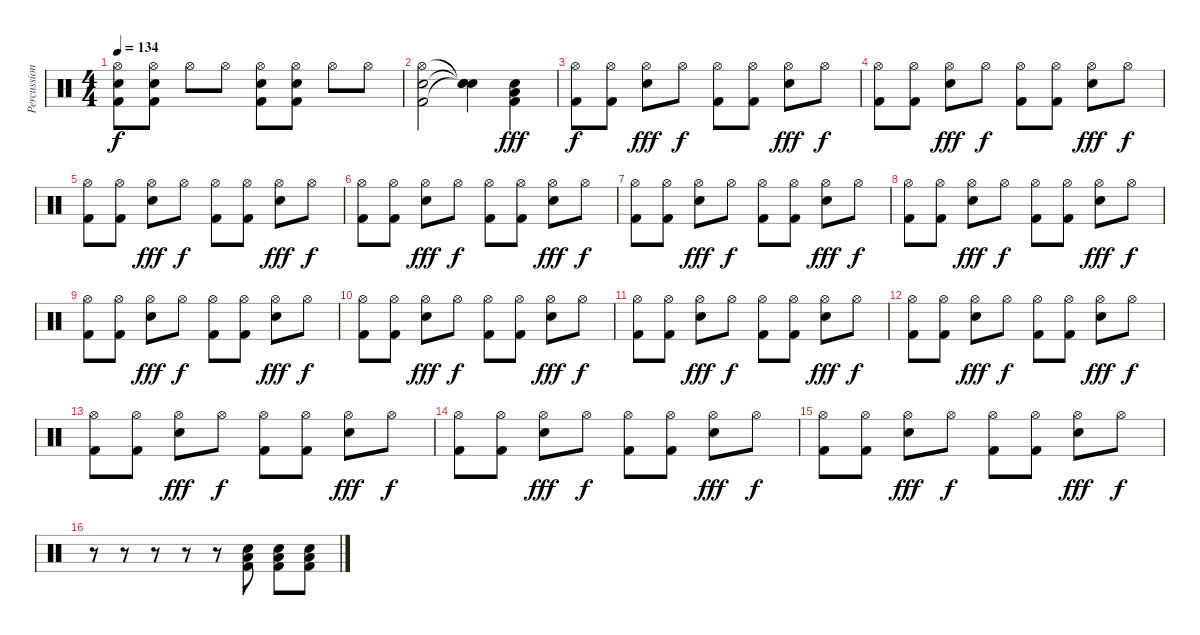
\track ("Percussion" "Percussion") {instrument percussion}
\staff {score}
\articulation defaults
\ts (4 4)
\tempo 134
\clef neutral
\ks c
("Hi-Hat (open)" "Snare (hit) 2" "Kick (hit) 2").8{dy f} ("Hi-Hat (open)" "Snare (hit) 2" "Kick (hit) 2").8 "Hi-Hat (open)".8 "Hi-Hat (open)".8 ("Hi-Hat (open)" "Snare (hit) 2" "Kick (hit) 2").8 ("Hi-Hat (open)" "Snare (hit) 2" "Kick (hit) 2").8 "Hi-Hat (open)".8 "Hi-Hat (open)".8 |
("Hi-Hat (open)" "Snare (hit) 2" "Kick (hit) 2").2 ("Snare (hit)"{t} "Snare (hit)"{t} "Snare (hit)"{t}).4 ("Low Tom (hit)" "Snare (hit) 2" "Kick (hit) 2").4{dy fff} |
("Hi-Hat (open)" "Kick (hit) 2").8{dy f} ("Hi-Hat (open)" "Kick (hit) 2").8 ("Hi-Hat (open)" "Snare (hit) 2").8{dy fff} "Hi-Hat (open)".8{dy f} ("Hi-Hat (open)" "Kick (hit) 2").8 ("Hi-Hat (open)" "Kick (hit) 2").8 ("Hi-Hat (open)" "Snare (hit) 2").8{dy fff} "Hi-Hat (open)".8{dy f} |
("Hi-Hat (open)" "Kick (hit) 2").8 ("Hi-Hat (open)" "Kick (hit) 2").8 ("Hi-Hat (open)" "Snare (hit) 2").8{dy fff} "Hi-Hat (open)".8{dy f} ("Hi-Hat (open)" "Kick (hit) 2").8 ("Hi-Hat (open)" "Kick (hit) 2").8 ("Hi-Hat (open)" "Snare (hit) 2").8{dy fff} "Hi-Hat (open)".8{dy f} |
("Hi-Hat (open)" "Kick (hit) 2").8 ("Hi-Hat (open)" "Kick (hit) 2").8 ("Hi-Hat (open)" "Snare (hit) 2").8{dy fff} "Hi-Hat (open)".8{dy f} ("Hi-Hat (open)" "Kick (hit) 2").8 ("Hi-Hat (open)" "Kick (hit) 2").8 ("Hi-Hat (open)" "Snare (hit) 2").8{dy fff} "Hi-Hat (open)".8{dy f} |
("Hi-Hat (open)" "Kick (hit) 2").8 ("Hi-Hat (open)" "Kick (hit) 2").8 ("Hi-Hat (open)" "Snare (hit) 2").8{dy fff} "Hi-Hat (open)".8{dy f} ("Hi-Hat (open)" "Kick (hit) 2").8 ("Hi-Hat (open)" "Kick (hit) 2").8 ("Hi-Hat (open)" "Snare (hit) 2").8{dy fff} "Hi-Hat (open)".8{dy f} |
("Hi-Hat (open)" "Kick (hit) 2").8 ("Hi-Hat (open)" "Kick (hit) 2").8 ("Hi-Hat (open)" "Snare (hit) 2").8{dy fff} "Hi-Hat (open)".8{dy f} ("Hi-Hat (open)" "Kick (hit) 2").8 ("Hi-Hat (open)" "Kick (hit) 2").8 ("Hi-Hat (open)" "Snare (hit) 2").8{dy fff} "Hi-Hat (open)".8{dy f} |
("Hi-Hat (open)" "Kick (hit) 2").8 ("Hi-Hat (open)" "Kick (hit) 2").8 ("Hi-Hat (open)" "Snare (hit) 2").8{dy fff} "Hi-Hat (open)".8{dy f} ("Hi-Hat (open)" "Kick (hit) 2").8 ("Hi-Hat (open)" "Kick (hit) 2").8 ("Hi-Hat (open)" "Snare (hit) 2").8{dy fff} "Hi-Hat (open)".8{dy f} |
("Hi-Hat (open)" "Kick (hit) 2").8 ("Hi-Hat (open)" "Kick (hit) 2").8 ("Hi-Hat (open)" "Snare (hit) 2").8{dy fff} "Hi-Hat (open)".8{dy f} ("Hi-Hat (open)" "Kick (hit) 2").8 ("Hi-Hat (open)" "Kick (hit) 2").8 ("Hi-Hat (open)" "Snare (hit) 2").8{dy fff} "Hi-Hat (open)".8{dy f} |
("Hi-Hat (open)" "Kick (hit) 2").8 ("Hi-Hat (open)" "Kick (hit) 2").8 ("Hi-Hat (open)" "Snare (hit) 2").8{dy fff} "Hi-Hat (open)".8{dy f} ("Hi-Hat (open)" "Kick (hit) 2").8 ("Hi-Hat (open)" "Kick (hit) 2").8 ("Hi-Hat (open)" "Snare (hit) 2").8{dy fff} "Hi-Hat (open)".8{dy f} |
("Hi-Hat (open)" "Kick (hit) 2").8 ("Hi-Hat (open)" "Kick (hit) 2").8 ("Hi-Hat (open)" "Snare (hit) 2").8{dy fff} "Hi-Hat (open)".8{dy f} ("Hi-Hat (open)" "Kick (hit) 2").8 ("Hi-Hat (open)" "Kick (hit) 2").8 ("Hi-Hat (open)" "Snare (hit) 2").8{dy fff} "Hi-Hat (open)".8{dy f} |
("Hi-Hat (open)" "Kick (hit) 2").8 ("Hi-Hat (open)" "Kick (hit) 2").8 ("Hi-Hat (open)" "Snare (hit) 2").8{dy fff} "Hi-Hat (open)".8{dy f} ("Hi-Hat (open)" "Kick (hit) 2").8 ("Hi-Hat (open)" "Kick (hit) 2").8 ("Hi-Hat (open)" "Snare (hit) 2").8{dy fff} "Hi-Hat (open)".8{dy f} |
("Hi-Hat (open)" "Kick (hit) 2").8 ("Hi-Hat (open)" "Kick (hit) 2").8 ("Hi-Hat (open)" "Snare (hit) 2").8{dy fff} "Hi-Hat (open)".8{dy f} ("Hi-Hat (open)" "Kick (hit) 2").8 ("Hi-Hat (open)" "Kick (hit) 2").8 ("Hi-Hat (open)" "Snare (hit) 2").8{dy fff} "Hi-Hat (open)".8{dy f} |
("Hi-Hat (open)" "Kick (hit) 2").8 ("Hi-Hat (open)" "Kick (hit) 2").8 ("Hi-Hat (open)" "Snare (hit) 2").8{dy fff} "Hi-Hat (open)".8{dy f} ("Hi-Hat (open)" "Kick (hit) 2").8 ("Hi-Hat (open)" "Kick (hit) 2").8 ("Hi-Hat (open)" "Snare (hit) 2").8{dy fff} "Hi-Hat (open)".8{dy f} |
("Hi-Hat (open)" "Kick (hit) 2").8 ("Hi-Hat (open)" "Kick (hit) 2").8 ("Hi-Hat (open)" "Snare (hit) 2").8{dy fff} "Hi-Hat (open)".8{dy f} ("Hi-Hat (open)" "Kick (hit) 2").8 ("Hi-Hat (open)" "Kick (hit) 2").8 ("Hi-Hat (open)" "Snare (hit) 2").8{dy fff} "Hi-Hat (open)".8{dy f} |
r.8 r.8 r.8 r.8 r.8 ("Low Tom (hit)" "Snare (hit) 2" "Kick (hit) 2").8 ("Low Tom (hit)" "Snare (hit) 2" "Kick (hit) 2").8 ("Low Tom (hit)" "Snare (hit) 2" "Kick (hit) 2").8
